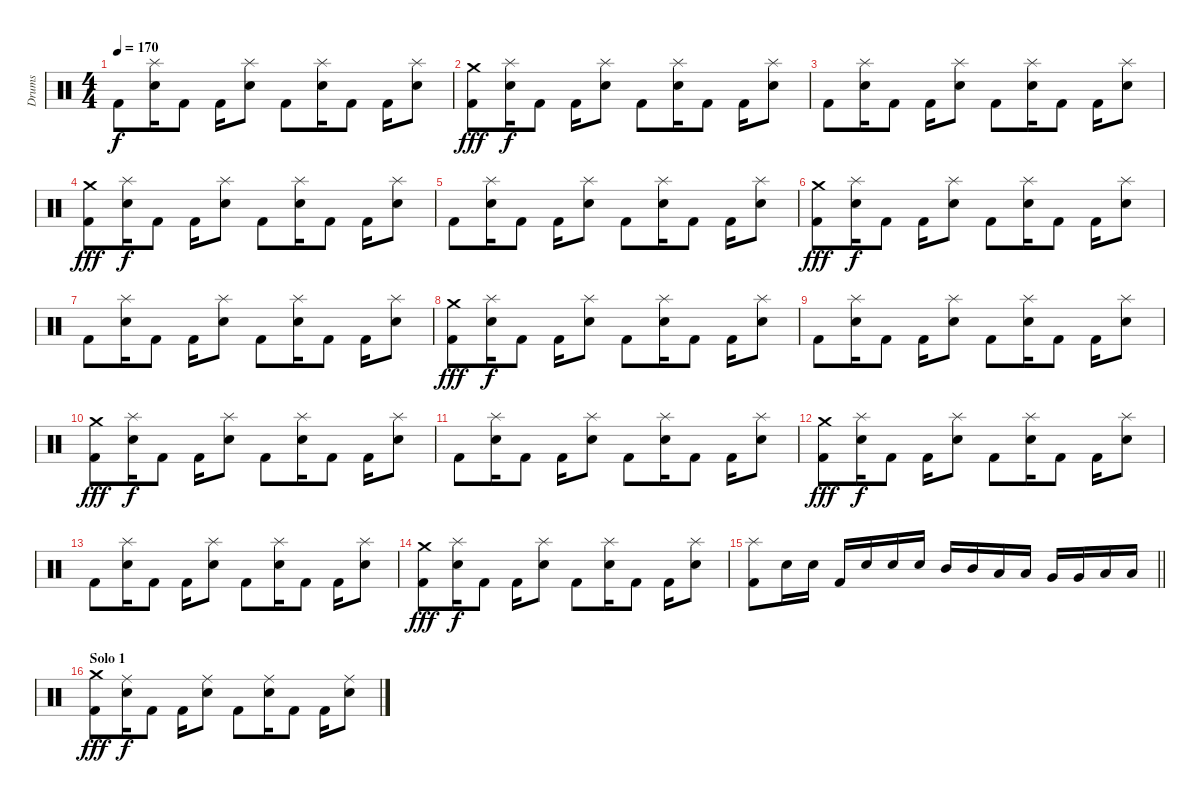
\track ("Drums" "Drums") {instrument percussion}
\staff {score}
\articulation defaults
\ts (4 4)
\tempo 170
\clef neutral
\ks c "Kick (hit) 2".8{dy f}
("Electric Snare (hit)" "Splash (hit)").16 "Kick (hit) 2".8 "Kick (hit) 2".16 ("Electric Snare (hit)" "Splash (hit)").8 "Kick (hit) 2".8 ("Electric Snare (hit)" "Splash (hit)").16 "Kick (hit) 2".8 "Kick (hit) 2".16 ("Electric Snare (hit)" "Splash (hit)").8 |
("Kick (hit) 2" "Crash medium (hit)").8{dy fff} ("Electric Snare (hit)" "Splash (hit)").16{dy f} "Kick (hit) 2".8 "Kick (hit) 2".16 ("Electric Snare (hit)" "Splash (hit)").8 "Kick (hit) 2".8 ("Electric Snare (hit)" "Splash (hit)").16 "Kick (hit) 2".8 "Kick (hit) 2".16 ("Electric Snare (hit)" "Splash (hit)").8 |
"Kick (hit) 2".8 ("Electric Snare (hit)" "Splash (hit)").16 "Kick (hit) 2".8 "Kick (hit) 2".16 ("Electric Snare (hit)" "Splash (hit)").8 "Kick (hit) 2".8 ("Electric Snare (hit)" "Splash (hit)").16 "Kick (hit) 2".8 "Kick (hit) 2".16 ("Electric Snare (hit)" "Splash (hit)").8 |
("Kick (hit) 2" "Crash medium (hit)").8{dy fff} ("Electric Snare (hit)" "Splash (hit)").16{dy f} "Kick (hit) 2".8 "Kick (hit) 2".16 ("Electric Snare (hit)" "Splash (hit)").8 "Kick (hit) 2".8 ("Electric Snare (hit)" "Splash (hit)").16 "Kick (hit) 2".8 "Kick (hit) 2".16 ("Electric Snare (hit)" "Splash (hit)").8 |
"Kick (hit) 2".8 ("Electric Snare (hit)" "Splash (hit)").16 "Kick (hit) 2".8 "Kick (hit) 2".16 ("Electric Snare (hit)" "Splash (hit)").8 "Kick (hit) 2".8 ("Electric Snare (hit)" "Splash (hit)").16 "Kick (hit) 2".8 "Kick (hit) 2".16 ("Electric Snare (hit)" "Splash (hit)").8 |
("Kick (hit) 2" "Crash medium (hit)").8{dy fff} ("Electric Snare (hit)" "Splash (hit)").16{dy f} "Kick (hit) 2".8 "Kick (hit) 2".16 ("Electric Snare (hit)" "Splash (hit)").8 "Kick (hit) 2".8 ("Electric Snare (hit)" "Splash (hit)").16 "Kick (hit) 2".8 "Kick (hit) 2".16 ("Electric Snare (hit)" "Splash (hit)").8 |
"Kick (hit) 2".8 ("Electric Snare (hit)" "Splash (hit)").16 "Kick (hit) 2".8 "Kick (hit) 2".16 ("Electric Snare (hit)" "Splash (hit)").8 "Kick (hit) 2".8 ("Electric Snare (hit)" "Splash (hit)").16 "Kick (hit) 2".8 "Kick (hit) 2".16 ("Electric Snare (hit)" "Splash (hit)").8 |
("Kick (hit) 2" "Crash medium (hit)").8{dy fff} ("Electric Snare (hit)" "Splash (hit)").16{dy f} "Kick (hit) 2".8 "Kick (hit) 2".16 ("Electric Snare (hit)" "Splash (hit)").8 "Kick (hit) 2".8 ("Electric Snare (hit)" "Splash (hit)").16 "Kick (hit) 2".8 "Kick (hit) 2".16 ("Electric Snare (hit)" "Splash (hit)").8 |
"Kick (hit) 2".8 ("Electric Snare (hit)" "Splash (hit)").16 "Kick (hit) 2".8 "Kick (hit) 2".16 ("Electric Snare (hit)" "Splash (hit)").8 "Kick (hit) 2".8 ("Electric Snare (hit)" "Splash (hit)").16 "Kick (hit) 2".8 "Kick (hit) 2".16 ("Electric Snare (hit)" "Splash (hit)").8 |
("Kick (hit) 2" "Crash medium (hit)").8{dy fff} ("Electric Snare (hit)" "Splash (hit)").16{dy f} "Kick (hit) 2".8 "Kick (hit) 2".16 ("Electric Snare (hit)" "Splash (hit)").8 "Kick (hit) 2".8 ("Electric Snare (hit)" "Splash (hit)").16 "Kick (hit) 2".8 "Kick (hit) 2".16 ("Electric Snare (hit)" "Splash (hit)").8 |
"Kick (hit) 2".8 ("Electric Snare (hit)" "Splash (hit)").16 "Kick (hit) 2".8 "Kick (hit) 2".16 ("Electric Snare (hit)" "Splash (hit)").8 "Kick (hit) 2".8 ("Electric Snare (hit)" "Splash (hit)").16 "Kick (hit) 2".8 "Kick (hit) 2".16 ("Electric Snare (hit)" "Splash (hit)").8 |
("Kick (hit) 2" "Crash medium (hit)").8{dy fff} ("Electric Snare (hit)" "Splash (hit)").16{dy f} "Kick (hit) 2".8 "Kick (hit) 2".16 ("Electric Snare (hit)" "Splash (hit)").8 "Kick (hit) 2".8 ("Electric Snare (hit)" "Splash (hit)").16 "Kick (hit) 2".8 "Kick (hit) 2".16 ("Electric Snare (hit)" "Splash (hit)").8 |
"Kick (hit) 2".8 ("Electric Snare (hit)" "Splash (hit)").16 "Kick (hit) 2".8 "Kick (hit) 2".16 ("Electric Snare (hit)" "Splash (hit)").8 "Kick (hit) 2".8 ("Electric Snare (hit)" "Splash (hit)").16 "Kick (hit) 2".8 "Kick (hit) 2".16 ("Electric Snare (hit)" "Splash (hit)").8 |
("Kick (hit) 2" "Crash medium (hit)").8{dy fff} ("Electric Snare (hit)" "Splash (hit)").16{dy f} "Kick (hit) 2".8 "Kick (hit) 2".16 ("Electric Snare (hit)" "Splash (hit)").8 "Kick (hit) 2".8 ("Electric Snare (hit)" "Splash (hit)").16 "Kick (hit) 2".8 "Kick (hit) 2".16 ("Electric Snare (hit)" "Splash (hit)").8 |
\barLineRight lightlight
("Kick (hit) 2" "Splash (hit)").8 "Electric Snare (hit)".16 "Electric Snare (hit)".16 "Kick (hit) 2".16 "Electric Snare (hit)".16 "Electric Snare (hit)".16 "Electric Snare (hit)".16 "Mid Tom (hit)".16 "Mid Tom (hit)".16 "Low Tom (hit)".16 "Low Tom (hit)".16 "Very Low Tom (hit)".16 "Very Low Tom (hit)".16 "Low Floor Tom (hit)".16 "Low Floor Tom (hit)".16 |
\section ("" "Solo 1")
("Kick (hit) 2" "Crash medium (hit)").8{dy fff} ("Electric Snare (hit)" "Ride (middle)").16{dy f} "Kick (hit) 2".8 "Kick (hit) 2".16 ("Electric Snare (hit)" "Ride (middle)").8 "Kick (hit) 2".8 ("Electric Snare (hit)" "Ride (middle)").16 "Kick (hit) 2".8 "Kick (hit) 2".16 ("Electric Snare (hit)" "Ride (middle)").8
